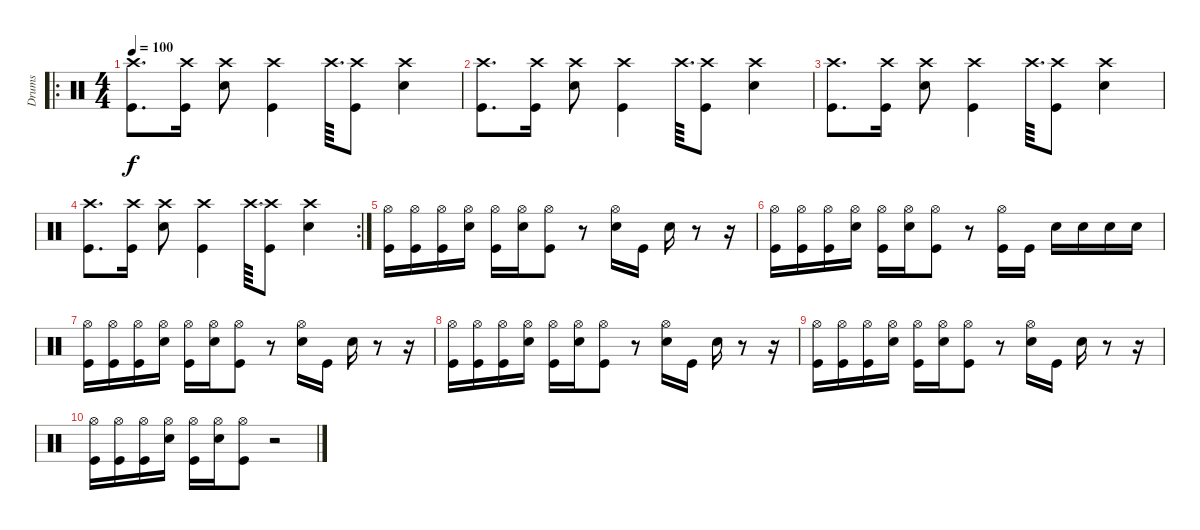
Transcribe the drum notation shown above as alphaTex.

\track ("Drums" "Drums") {instrument percussion}
\staff {score}
\articulation defaults
\ro
\ts (4 4)
\tempo 100
\clef neutral
\ks c
("Crash high (hit)" "Kick (hit)").8{d dy f} ("Crash high (hit)" "Kick (hit)").16 ("Crash high (hit)" "Snare (hit) 2").8 ("Crash high (hit)" "Kick (hit)").4 "Crash high (hit)".64{d} ("Crash high (hit)" "Kick (hit)").8 ("Crash high (hit)" "Snare (hit) 2").4 |
("Crash high (hit)" "Kick (hit)").8{d} ("Crash high (hit)" "Kick (hit)").16 ("Crash high (hit)" "Snare (hit) 2").8 ("Crash high (hit)" "Kick (hit)").4 "Crash high (hit)".64{d} ("Crash high (hit)" "Kick (hit)").8 ("Crash high (hit)" "Snare (hit) 2").4 |
("Crash high (hit)" "Kick (hit)").8{d} ("Crash high (hit)" "Kick (hit)").16 ("Crash high (hit)" "Snare (hit) 2").8 ("Crash high (hit)" "Kick (hit)").4 "Crash high (hit)".64{d} ("Crash high (hit)" "Kick (hit)").8 ("Crash high (hit)" "Snare (hit) 2").4 |
\rc 2
("Crash high (hit)" "Kick (hit)").8{d} ("Crash high (hit)" "Kick (hit)").16 ("Crash high (hit)" "Snare (hit) 2").8 ("Crash high (hit)" "Kick (hit)").4 "Crash high (hit)".64{d} ("Crash high (hit)" "Kick (hit)").8 ("Crash high (hit)" "Snare (hit) 2").4 |
("Hi-Hat (open)" "Kick (hit)").16 ("Hi-Hat (open)" "Kick (hit)").16 ("Hi-Hat (open)" "Kick (hit)").16 ("Hi-Hat (open)" "Snare (hit) 2").16 ("Hi-Hat (open)" "Kick (hit)").16 ("Hi-Hat (open)" "Snare (hit) 2").16 ("Hi-Hat (open)" "Kick (hit)").8 r.8 ("Hi-Hat (open)" "Snare (hit) 2").16 "Kick (hit)".16 "Snare (hit) 2".16 r.8 r.16 |
("Hi-Hat (open)" "Kick (hit)").16 ("Hi-Hat (open)" "Kick (hit)").16 ("Hi-Hat (open)" "Kick (hit)").16 ("Hi-Hat (open)" "Snare (hit) 2").16 ("Hi-Hat (open)" "Kick (hit)").16 ("Hi-Hat (open)" "Snare (hit) 2").16 ("Hi-Hat (open)" "Kick (hit)").8 r.8 ("Hi-Hat (open)" "Kick (hit)").16 "Kick (hit)".16 "Snare (hit) 2".16 "Snare (hit) 2".16 "Snare (hit) 2".16 "Snare (hit) 2".16 |
("Hi-Hat (open)" "Kick (hit)").16 ("Hi-Hat (open)" "Kick (hit)").16 ("Hi-Hat (open)" "Kick (hit)").16 ("Hi-Hat (open)" "Snare (hit) 2").16 ("Hi-Hat (open)" "Kick (hit)").16 ("Hi-Hat (open)" "Snare (hit) 2").16 ("Hi-Hat (open)" "Kick (hit)").8 r.8 ("Hi-Hat (open)" "Snare (hit) 2").16 "Kick (hit)".16 "Snare (hit) 2".16 r.8 r.16 |
("Hi-Hat (open)" "Kick (hit)").16 ("Hi-Hat (open)" "Kick (hit)").16 ("Hi-Hat (open)" "Kick (hit)").16 ("Hi-Hat (open)" "Snare (hit) 2").16 ("Hi-Hat (open)" "Kick (hit)").16 ("Hi-Hat (open)" "Snare (hit) 2").16 ("Hi-Hat (open)" "Kick (hit)").8 r.8 ("Hi-Hat (open)" "Snare (hit) 2").16 "Kick (hit)".16 "Snare (hit) 2".16 r.8 r.16 |
("Hi-Hat (open)" "Kick (hit)").16 ("Hi-Hat (open)" "Kick (hit)").16 ("Hi-Hat (open)" "Kick (hit)").16 ("Hi-Hat (open)" "Snare (hit) 2").16 ("Hi-Hat (open)" "Kick (hit)").16 ("Hi-Hat (open)" "Snare (hit) 2").16 ("Hi-Hat (open)" "Kick (hit)").8 r.8 ("Hi-Hat (open)" "Snare (hit) 2").16 "Kick (hit)".16 "Snare (hit) 2".16 r.8 r.16 |
("Hi-Hat (open)" "Kick (hit)").16 ("Hi-Hat (open)" "Kick (hit)").16 ("Hi-Hat (open)" "Kick (hit)").16 ("Hi-Hat (open)" "Snare (hit) 2").16 ("Hi-Hat (open)" "Kick (hit)").16 ("Hi-Hat (open)" "Snare (hit) 2").16 ("Hi-Hat (open)" "Kick (hit)").8 r.2
